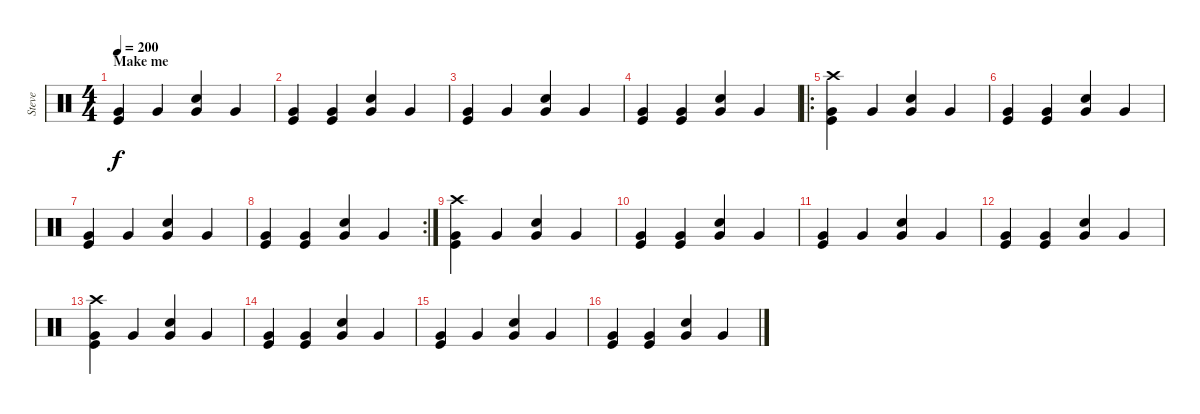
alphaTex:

\track ("Steve" "Steve") {instrument percussion}
\staff {score}
\articulation defaults
\ts (4 4)
\section ("" "Make me")
\tempo 200
\clef neutral
\ks c
("Very Low Tom (hit)" "Kick (hit)").4{dy f} "Very Low Tom (hit)".4 ("Very Low Tom (hit)" "Snare (hit) 2").4 "Very Low Tom (hit)".4 |
("Very Low Tom (hit)" "Kick (hit)").4 ("Very Low Tom (hit)" "Kick (hit)").4 ("Very Low Tom (hit)" "Snare (hit) 2").4 "Very Low Tom (hit)".4 |
("Very Low Tom (hit)" "Kick (hit)").4 "Very Low Tom (hit)".4 ("Very Low Tom (hit)" "Snare (hit) 2").4 "Very Low Tom (hit)".4 |
("Very Low Tom (hit)" "Kick (hit)").4 ("Very Low Tom (hit)" "Kick (hit)").4 ("Very Low Tom (hit)" "Snare (hit) 2").4 "Very Low Tom (hit)".4 |
\ro
("Crash high (hit)" "Very Low Tom (hit)" "Kick (hit)").4 "Very Low Tom (hit)".4 ("Very Low Tom (hit)" "Snare (hit) 2").4 "Very Low Tom (hit)".4 |
("Very Low Tom (hit)" "Kick (hit)").4 ("Very Low Tom (hit)" "Kick (hit)").4 ("Very Low Tom (hit)" "Snare (hit) 2").4 "Very Low Tom (hit)".4 |
("Very Low Tom (hit)" "Kick (hit)").4 "Very Low Tom (hit)".4 ("Very Low Tom (hit)" "Snare (hit) 2").4 "Very Low Tom (hit)".4 |
\rc 2
("Very Low Tom (hit)" "Kick (hit)").4 ("Very Low Tom (hit)" "Kick (hit)").4 ("Very Low Tom (hit)" "Snare (hit) 2").4 "Very Low Tom (hit)".4 |
("Crash high (hit)" "Very Low Tom (hit)" "Kick (hit)").4 "Very Low Tom (hit)".4 ("Very Low Tom (hit)" "Snare (hit) 2").4 "Very Low Tom (hit)".4 |
("Very Low Tom (hit)" "Kick (hit)").4 ("Very Low Tom (hit)" "Kick (hit)").4 ("Very Low Tom (hit)" "Snare (hit) 2").4 "Very Low Tom (hit)".4 |
("Very Low Tom (hit)" "Kick (hit)").4 "Very Low Tom (hit)".4 ("Very Low Tom (hit)" "Snare (hit) 2").4 "Very Low Tom (hit)".4 |
("Very Low Tom (hit)" "Kick (hit)").4 ("Very Low Tom (hit)" "Kick (hit)").4 ("Very Low Tom (hit)" "Snare (hit) 2").4 "Very Low Tom (hit)".4 |
("Crash high (hit)" "Very Low Tom (hit)" "Kick (hit)").4 "Very Low Tom (hit)".4 ("Very Low Tom (hit)" "Snare (hit) 2").4 "Very Low Tom (hit)".4 |
("Very Low Tom (hit)" "Kick (hit)").4 ("Very Low Tom (hit)" "Kick (hit)").4 ("Very Low Tom (hit)" "Snare (hit) 2").4 "Very Low Tom (hit)".4 |
("Very Low Tom (hit)" "Kick (hit)").4 "Very Low Tom (hit)".4 ("Very Low Tom (hit)" "Snare (hit) 2").4 "Very Low Tom (hit)".4 |
("Very Low Tom (hit)" "Kick (hit)").4 ("Very Low Tom (hit)" "Kick (hit)").4 ("Very Low Tom (hit)" "Snare (hit) 2").4 "Very Low Tom (hit)".4
